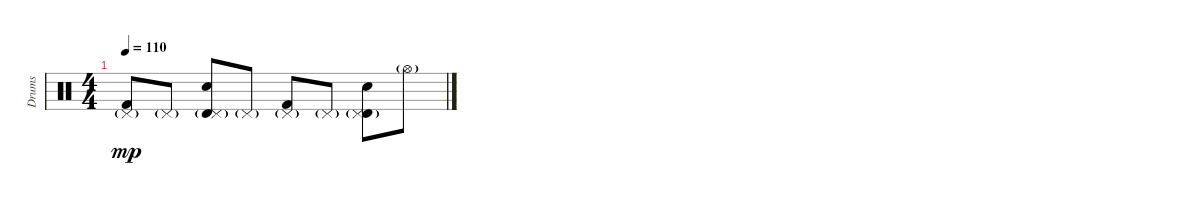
\track ("Drums" "Drums") {instrument percussion}
\staff {score}
\articulation defaults
\ts (4 4)
\tempo 110
\clef neutral
\ks c
("Kick (hit) 2" "Pedal Hi-Hat (hit)"{g}).8{dy mp} "Pedal Hi-Hat (hit)"{g}.8 ("Timbale high (hit)" "Electric Snare (hit)" "Pedal Hi-Hat (hit)"{g}).8 "Pedal Hi-Hat (hit)"{g}.8 ("Kick (hit) 2" "Pedal Hi-Hat (hit)"{g}).8 "Pedal Hi-Hat (hit)"{g}.8 ("Timbale high (hit)" "Electric Snare (hit)" "Pedal Hi-Hat (hit)"{g}).8 "Hi-Hat (open)"{g}.8
